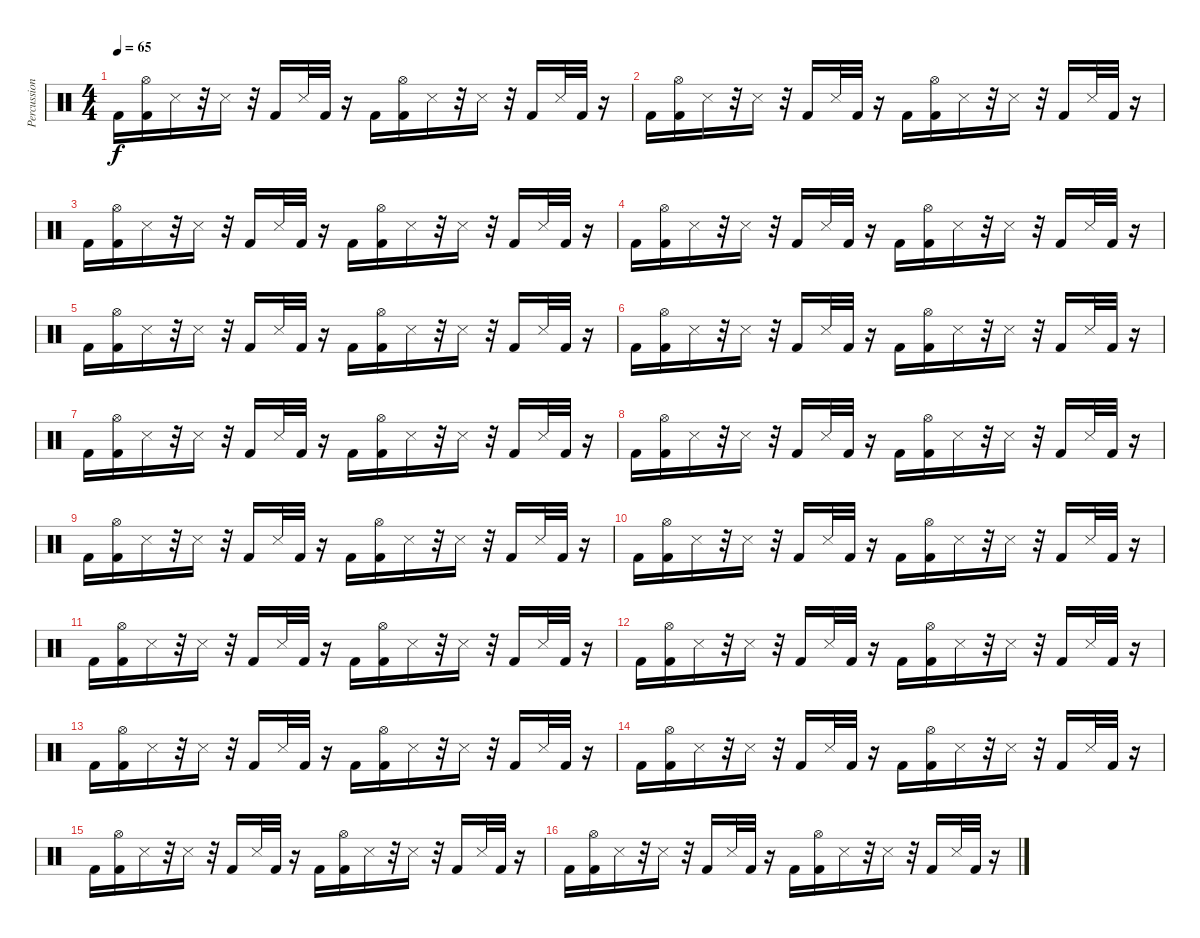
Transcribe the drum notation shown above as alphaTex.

\track ("Percussion 1" "Percussion") {instrument percussion}
\staff {score}
\articulation defaults
\ts (4 4)
\section ("" "")
\tempo 65
\clef neutral
\ks c "Kick (hit) 2".16{dy f}
("Hi-Hat (open)" "Kick (hit) 2").16 "Snare (side stick) 3".16 r.32 "Snare (side stick) 3".16 r.32 "Kick (hit) 2".16 "Snare (side stick) 3".32 "Kick (hit) 2".32 r.16 "Kick (hit) 2".16 ("Hi-Hat (open)" "Kick (hit) 2").16 "Snare (side stick) 3".16 r.32 "Snare (side stick) 3".16 r.32 "Kick (hit) 2".16 "Snare (side stick) 3".32 "Kick (hit) 2".32 r.16 |
"Kick (hit) 2".16 ("Hi-Hat (open)" "Kick (hit) 2").16 "Snare (side stick) 3".16 r.32 "Snare (side stick) 3".16 r.32 "Kick (hit) 2".16 "Snare (side stick) 3".32 "Kick (hit) 2".32 r.16 "Kick (hit) 2".16 ("Hi-Hat (open)" "Kick (hit) 2").16 "Snare (side stick) 3".16 r.32 "Snare (side stick) 3".16 r.32 "Kick (hit) 2".16 "Snare (side stick) 3".32 "Kick (hit) 2".32 r.16 |
"Kick (hit) 2".16 ("Hi-Hat (open)" "Kick (hit) 2").16 "Snare (side stick) 3".16 r.32 "Snare (side stick) 3".16 r.32 "Kick (hit) 2".16 "Snare (side stick) 3".32 "Kick (hit) 2".32 r.16 "Kick (hit) 2".16 ("Hi-Hat (open)" "Kick (hit) 2").16 "Snare (side stick) 3".16 r.32 "Snare (side stick) 3".16 r.32 "Kick (hit) 2".16 "Snare (side stick) 3".32 "Kick (hit) 2".32 r.16 |
"Kick (hit) 2".16 ("Hi-Hat (open)" "Kick (hit) 2").16 "Snare (side stick) 3".16 r.32 "Snare (side stick) 3".16 r.32 "Kick (hit) 2".16 "Snare (side stick) 3".32 "Kick (hit) 2".32 r.16 "Kick (hit) 2".16 ("Hi-Hat (open)" "Kick (hit) 2").16 "Snare (side stick) 3".16 r.32 "Snare (side stick) 3".16 r.32 "Kick (hit) 2".16 "Snare (side stick) 3".32 "Kick (hit) 2".32 r.16 |
"Kick (hit) 2".16 ("Hi-Hat (open)" "Kick (hit) 2").16 "Snare (side stick) 3".16 r.32 "Snare (side stick) 3".16 r.32 "Kick (hit) 2".16 "Snare (side stick) 3".32 "Kick (hit) 2".32 r.16 "Kick (hit) 2".16 ("Hi-Hat (open)" "Kick (hit) 2").16 "Snare (side stick) 3".16 r.32 "Snare (side stick) 3".16 r.32 "Kick (hit) 2".16 "Snare (side stick) 3".32 "Kick (hit) 2".32 r.16 |
"Kick (hit) 2".16 ("Hi-Hat (open)" "Kick (hit) 2").16 "Snare (side stick) 3".16 r.32 "Snare (side stick) 3".16 r.32 "Kick (hit) 2".16 "Snare (side stick) 3".32 "Kick (hit) 2".32 r.16 "Kick (hit) 2".16 ("Hi-Hat (open)" "Kick (hit) 2").16 "Snare (side stick) 3".16 r.32 "Snare (side stick) 3".16 r.32 "Kick (hit) 2".16 "Snare (side stick) 3".32 "Kick (hit) 2".32 r.16 |
\section ("" "")
"Kick (hit) 2".16 ("Hi-Hat (open)" "Kick (hit) 2").16 "Snare (side stick) 3".16 r.32 "Snare (side stick) 3".16 r.32 "Kick (hit) 2".16 "Snare (side stick) 3".32 "Kick (hit) 2".32 r.16 "Kick (hit) 2".16 ("Hi-Hat (open)" "Kick (hit) 2").16 "Snare (side stick) 3".16 r.32 "Snare (side stick) 3".16 r.32 "Kick (hit) 2".16 "Snare (side stick) 3".32 "Kick (hit) 2".32 r.16 |
"Kick (hit) 2".16 ("Hi-Hat (open)" "Kick (hit) 2").16 "Snare (side stick) 3".16 r.32 "Snare (side stick) 3".16 r.32 "Kick (hit) 2".16 "Snare (side stick) 3".32 "Kick (hit) 2".32 r.16 "Kick (hit) 2".16 ("Hi-Hat (open)" "Kick (hit) 2").16 "Snare (side stick) 3".16 r.32 "Snare (side stick) 3".16 r.32 "Kick (hit) 2".16 "Snare (side stick) 3".32 "Kick (hit) 2".32 r.16 |
"Kick (hit) 2".16 ("Hi-Hat (open)" "Kick (hit) 2").16 "Snare (side stick) 3".16 r.32 "Snare (side stick) 3".16 r.32 "Kick (hit) 2".16 "Snare (side stick) 3".32 "Kick (hit) 2".32 r.16 "Kick (hit) 2".16 ("Hi-Hat (open)" "Kick (hit) 2").16 "Snare (side stick) 3".16 r.32 "Snare (side stick) 3".16 r.32 "Kick (hit) 2".16 "Snare (side stick) 3".32 "Kick (hit) 2".32 r.16 |
"Kick (hit) 2".16 ("Hi-Hat (open)" "Kick (hit) 2").16 "Snare (side stick) 3".16 r.32 "Snare (side stick) 3".16 r.32 "Kick (hit) 2".16 "Snare (side stick) 3".32 "Kick (hit) 2".32 r.16 "Kick (hit) 2".16 ("Hi-Hat (open)" "Kick (hit) 2").16 "Snare (side stick) 3".16 r.32 "Snare (side stick) 3".16 r.32 "Kick (hit) 2".16 "Snare (side stick) 3".32 "Kick (hit) 2".32 r.16 |
"Kick (hit) 2".16 ("Hi-Hat (open)" "Kick (hit) 2").16 "Snare (side stick) 3".16 r.32 "Snare (side stick) 3".16 r.32 "Kick (hit) 2".16 "Snare (side stick) 3".32 "Kick (hit) 2".32 r.16 "Kick (hit) 2".16 ("Hi-Hat (open)" "Kick (hit) 2").16 "Snare (side stick) 3".16 r.32 "Snare (side stick) 3".16 r.32 "Kick (hit) 2".16 "Snare (side stick) 3".32 "Kick (hit) 2".32 r.16 |
"Kick (hit) 2".16 ("Hi-Hat (open)" "Kick (hit) 2").16 "Snare (side stick) 3".16 r.32 "Snare (side stick) 3".16 r.32 "Kick (hit) 2".16 "Snare (side stick) 3".32 "Kick (hit) 2".32 r.16 "Kick (hit) 2".16 ("Hi-Hat (open)" "Kick (hit) 2").16 "Snare (side stick) 3".16 r.32 "Snare (side stick) 3".16 r.32 "Kick (hit) 2".16 "Snare (side stick) 3".32 "Kick (hit) 2".32 r.16 |
"Kick (hit) 2".16 ("Hi-Hat (open)" "Kick (hit) 2").16 "Snare (side stick) 3".16 r.32 "Snare (side stick) 3".16 r.32 "Kick (hit) 2".16 "Snare (side stick) 3".32 "Kick (hit) 2".32 r.16 "Kick (hit) 2".16 ("Hi-Hat (open)" "Kick (hit) 2").16 "Snare (side stick) 3".16 r.32 "Snare (side stick) 3".16 r.32 "Kick (hit) 2".16 "Snare (side stick) 3".32 "Kick (hit) 2".32 r.16 |
"Kick (hit) 2".16 ("Hi-Hat (open)" "Kick (hit) 2").16 "Snare (side stick) 3".16 r.32 "Snare (side stick) 3".16 r.32 "Kick (hit) 2".16 "Snare (side stick) 3".32 "Kick (hit) 2".32 r.16 "Kick (hit) 2".16 ("Hi-Hat (open)" "Kick (hit) 2").16 "Snare (side stick) 3".16 r.32 "Snare (side stick) 3".16 r.32 "Kick (hit) 2".16 "Snare (side stick) 3".32 "Kick (hit) 2".32 r.16 |
"Kick (hit) 2".16 ("Hi-Hat (open)" "Kick (hit) 2").16 "Snare (side stick) 3".16 r.32 "Snare (side stick) 3".16 r.32 "Kick (hit) 2".16 "Snare (side stick) 3".32 "Kick (hit) 2".32 r.16 "Kick (hit) 2".16 ("Hi-Hat (open)" "Kick (hit) 2").16 "Snare (side stick) 3".16 r.32 "Snare (side stick) 3".16 r.32 "Kick (hit) 2".16 "Snare (side stick) 3".32 "Kick (hit) 2".32 r.16 |
"Kick (hit) 2".16 ("Hi-Hat (open)" "Kick (hit) 2").16 "Snare (side stick) 3".16 r.32 "Snare (side stick) 3".16 r.32 "Kick (hit) 2".16 "Snare (side stick) 3".32 "Kick (hit) 2".32 r.16 "Kick (hit) 2".16 ("Hi-Hat (open)" "Kick (hit) 2").16 "Snare (side stick) 3".16 r.32 "Snare (side stick) 3".16 r.32 "Kick (hit) 2".16 "Snare (side stick) 3".32 "Kick (hit) 2".32 r.16
